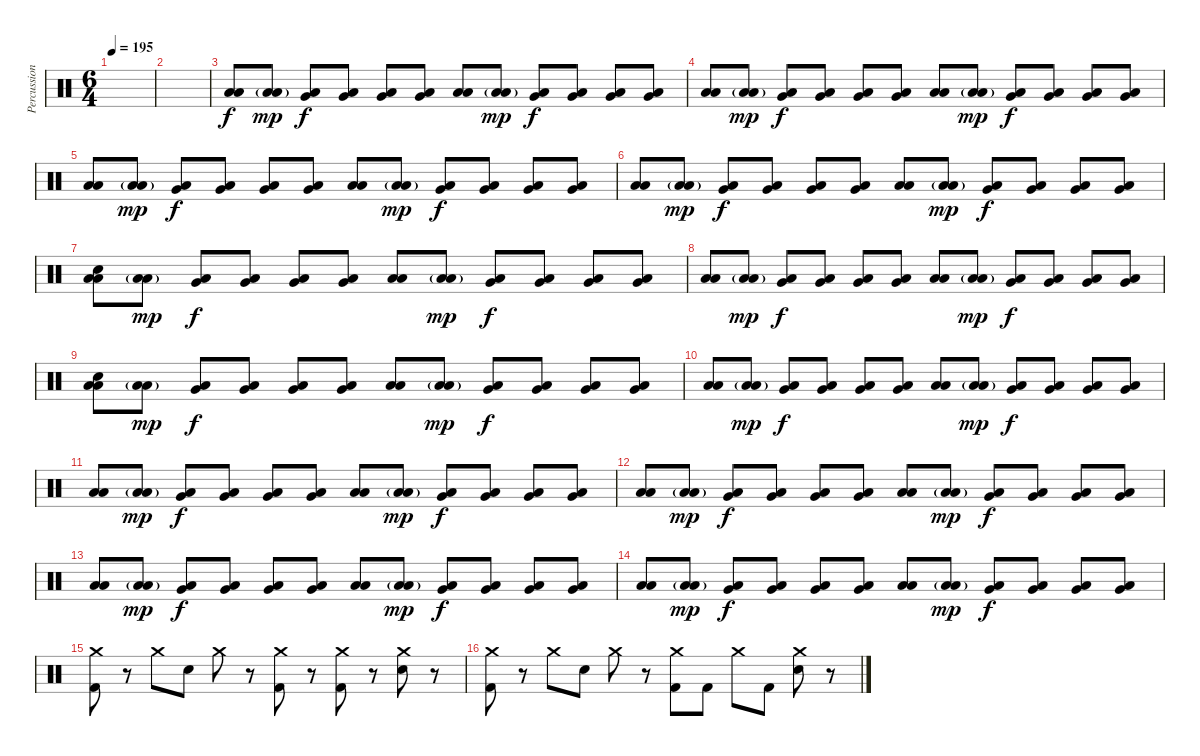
\track ("Percussion" "Percussion") {instrument percussion}
\staff {score}
\articulation defaults
\ts (6 4)
\tempo 195
\clef neutral
\ks c
|
|
("Low Floor Tom (hit)" "Low Floor Tom (hit)").8 ("Low Floor Tom (hit)"{g} "Low Floor Tom (hit)"{g}).8{dy mp} ("Very Low Tom (hit)" "Low Tom (hit)").8{dy f} ("Very Low Tom (hit)" "Low Tom (hit)").8 ("Low Floor Tom (hit)" "Very Low Tom (hit)").8 ("Low Floor Tom (hit)" "Very Low Tom (hit)").8 ("Low Floor Tom (hit)" "Low Floor Tom (hit)").8 ("Low Floor Tom (hit)"{g} "Low Floor Tom (hit)"{g}).8{dy mp} ("Very Low Tom (hit)" "Low Tom (hit)").8{dy f} ("Very Low Tom (hit)" "Low Tom (hit)").8 ("Low Floor Tom (hit)" "Very Low Tom (hit)").8 ("Low Floor Tom (hit)" "Very Low Tom (hit)").8 |
("Low Floor Tom (hit)" "Low Floor Tom (hit)").8 ("Low Floor Tom (hit)"{g} "Low Floor Tom (hit)"{g}).8{dy mp} ("Very Low Tom (hit)" "Low Tom (hit)").8{dy f} ("Very Low Tom (hit)" "Low Tom (hit)").8 ("Low Floor Tom (hit)" "Very Low Tom (hit)").8 ("Low Floor Tom (hit)" "Very Low Tom (hit)").8 ("Low Floor Tom (hit)" "Low Floor Tom (hit)").8 ("Low Floor Tom (hit)"{g} "Low Floor Tom (hit)"{g}).8{dy mp} ("Very Low Tom (hit)" "Low Tom (hit)").8{dy f} ("Very Low Tom (hit)" "Low Tom (hit)").8 ("Low Floor Tom (hit)" "Very Low Tom (hit)").8 ("Low Floor Tom (hit)" "Very Low Tom (hit)").8 |
("Low Floor Tom (hit)" "Low Floor Tom (hit)").8 ("Low Floor Tom (hit)"{g} "Low Floor Tom (hit)"{g}).8{dy mp} ("Very Low Tom (hit)" "Low Tom (hit)").8{dy f} ("Very Low Tom (hit)" "Low Tom (hit)").8 ("Low Floor Tom (hit)" "Very Low Tom (hit)").8 ("Low Floor Tom (hit)" "Very Low Tom (hit)").8 ("Low Floor Tom (hit)" "Low Floor Tom (hit)").8 ("Low Floor Tom (hit)"{g} "Low Floor Tom (hit)"{g}).8{dy mp} ("Very Low Tom (hit)" "Low Tom (hit)").8{dy f} ("Very Low Tom (hit)" "Low Tom (hit)").8 ("Low Floor Tom (hit)" "Very Low Tom (hit)").8 ("Low Floor Tom (hit)" "Very Low Tom (hit)").8 |
("Low Floor Tom (hit)" "Low Floor Tom (hit)").8 ("Low Floor Tom (hit)"{g} "Low Floor Tom (hit)"{g}).8{dy mp} ("Very Low Tom (hit)" "Low Tom (hit)").8{dy f} ("Very Low Tom (hit)" "Low Tom (hit)").8 ("Low Floor Tom (hit)" "Very Low Tom (hit)").8 ("Low Floor Tom (hit)" "Very Low Tom (hit)").8 ("Low Floor Tom (hit)" "Low Floor Tom (hit)").8 ("Low Floor Tom (hit)"{g} "Low Floor Tom (hit)"{g}).8{dy mp} ("Very Low Tom (hit)" "Low Tom (hit)").8{dy f} ("Very Low Tom (hit)" "Low Tom (hit)").8 ("Low Floor Tom (hit)" "Very Low Tom (hit)").8 ("Low Floor Tom (hit)" "Very Low Tom (hit)").8 |
("Electric Snare (hit)" "Low Floor Tom (hit)" "Low Floor Tom (hit)").8 ("Low Floor Tom (hit)"{g} "Low Floor Tom (hit)"{g}).8{dy mp} ("Very Low Tom (hit)" "Low Tom (hit)").8{dy f} ("Very Low Tom (hit)" "Low Tom (hit)").8 ("Low Floor Tom (hit)" "Very Low Tom (hit)").8 ("Low Floor Tom (hit)" "Very Low Tom (hit)").8 ("Low Floor Tom (hit)" "Low Floor Tom (hit)").8 ("Low Floor Tom (hit)"{g} "Low Floor Tom (hit)"{g}).8{dy mp} ("Very Low Tom (hit)" "Low Tom (hit)").8{dy f} ("Very Low Tom (hit)" "Low Tom (hit)").8 ("Low Floor Tom (hit)" "Very Low Tom (hit)").8 ("Low Floor Tom (hit)" "Very Low Tom (hit)").8 |
("Low Floor Tom (hit)" "Low Floor Tom (hit)").8 ("Low Floor Tom (hit)"{g} "Low Floor Tom (hit)"{g}).8{dy mp} ("Very Low Tom (hit)" "Low Tom (hit)").8{dy f} ("Very Low Tom (hit)" "Low Tom (hit)").8 ("Low Floor Tom (hit)" "Very Low Tom (hit)").8 ("Low Floor Tom (hit)" "Very Low Tom (hit)").8 ("Low Floor Tom (hit)" "Low Floor Tom (hit)").8 ("Low Floor Tom (hit)"{g} "Low Floor Tom (hit)"{g}).8{dy mp} ("Very Low Tom (hit)" "Low Tom (hit)").8{dy f} ("Very Low Tom (hit)" "Low Tom (hit)").8 ("Low Floor Tom (hit)" "Very Low Tom (hit)").8 ("Low Floor Tom (hit)" "Very Low Tom (hit)").8 |
("Electric Snare (hit)" "Low Floor Tom (hit)" "Low Floor Tom (hit)").8 ("Low Floor Tom (hit)"{g} "Low Floor Tom (hit)"{g}).8{dy mp} ("Very Low Tom (hit)" "Low Tom (hit)").8{dy f} ("Very Low Tom (hit)" "Low Tom (hit)").8 ("Low Floor Tom (hit)" "Very Low Tom (hit)").8 ("Low Floor Tom (hit)" "Very Low Tom (hit)").8 ("Low Floor Tom (hit)" "Low Floor Tom (hit)").8 ("Low Floor Tom (hit)"{g} "Low Floor Tom (hit)"{g}).8{dy mp} ("Very Low Tom (hit)" "Low Tom (hit)").8{dy f} ("Very Low Tom (hit)" "Low Tom (hit)").8 ("Low Floor Tom (hit)" "Very Low Tom (hit)").8 ("Low Floor Tom (hit)" "Very Low Tom (hit)").8 |
("Low Floor Tom (hit)" "Low Floor Tom (hit)").8 ("Low Floor Tom (hit)"{g} "Low Floor Tom (hit)"{g}).8{dy mp} ("Very Low Tom (hit)" "Low Tom (hit)").8{dy f} ("Very Low Tom (hit)" "Low Tom (hit)").8 ("Low Floor Tom (hit)" "Very Low Tom (hit)").8 ("Low Floor Tom (hit)" "Very Low Tom (hit)").8 ("Low Floor Tom (hit)" "Low Floor Tom (hit)").8 ("Low Floor Tom (hit)"{g} "Low Floor Tom (hit)"{g}).8{dy mp} ("Very Low Tom (hit)" "Low Tom (hit)").8{dy f} ("Very Low Tom (hit)" "Low Tom (hit)").8 ("Low Floor Tom (hit)" "Very Low Tom (hit)").8 ("Low Floor Tom (hit)" "Very Low Tom (hit)").8 |
("Low Floor Tom (hit)" "Low Floor Tom (hit)").8 ("Low Floor Tom (hit)"{g} "Low Floor Tom (hit)"{g}).8{dy mp} ("Very Low Tom (hit)" "Low Tom (hit)").8{dy f} ("Very Low Tom (hit)" "Low Tom (hit)").8 ("Low Floor Tom (hit)" "Very Low Tom (hit)").8 ("Low Floor Tom (hit)" "Very Low Tom (hit)").8 ("Low Floor Tom (hit)" "Low Floor Tom (hit)").8 ("Low Floor Tom (hit)"{g} "Low Floor Tom (hit)"{g}).8{dy mp} ("Very Low Tom (hit)" "Low Tom (hit)").8{dy f} ("Very Low Tom (hit)" "Low Tom (hit)").8 ("Low Floor Tom (hit)" "Very Low Tom (hit)").8 ("Low Floor Tom (hit)" "Very Low Tom (hit)").8 |
("Low Floor Tom (hit)" "Low Floor Tom (hit)").8 ("Low Floor Tom (hit)"{g} "Low Floor Tom (hit)"{g}).8{dy mp} ("Very Low Tom (hit)" "Low Tom (hit)").8{dy f} ("Very Low Tom (hit)" "Low Tom (hit)").8 ("Low Floor Tom (hit)" "Very Low Tom (hit)").8 ("Low Floor Tom (hit)" "Very Low Tom (hit)").8 ("Low Floor Tom (hit)" "Low Floor Tom (hit)").8 ("Low Floor Tom (hit)"{g} "Low Floor Tom (hit)"{g}).8{dy mp} ("Very Low Tom (hit)" "Low Tom (hit)").8{dy f} ("Very Low Tom (hit)" "Low Tom (hit)").8 ("Low Floor Tom (hit)" "Very Low Tom (hit)").8 ("Low Floor Tom (hit)" "Very Low Tom (hit)").8 |
("Low Floor Tom (hit)" "Low Floor Tom (hit)").8 ("Low Floor Tom (hit)"{g} "Low Floor Tom (hit)"{g}).8{dy mp} ("Very Low Tom (hit)" "Low Tom (hit)").8{dy f} ("Very Low Tom (hit)" "Low Tom (hit)").8 ("Low Floor Tom (hit)" "Very Low Tom (hit)").8 ("Low Floor Tom (hit)" "Very Low Tom (hit)").8 ("Low Floor Tom (hit)" "Low Floor Tom (hit)").8 ("Low Floor Tom (hit)"{g} "Low Floor Tom (hit)"{g}).8{dy mp} ("Very Low Tom (hit)" "Low Tom (hit)").8{dy f} ("Very Low Tom (hit)" "Low Tom (hit)").8 ("Low Floor Tom (hit)" "Very Low Tom (hit)").8 ("Low Floor Tom (hit)" "Very Low Tom (hit)").8 |
("Low Floor Tom (hit)" "Low Floor Tom (hit)").8 ("Low Floor Tom (hit)"{g} "Low Floor Tom (hit)"{g}).8{dy mp} ("Very Low Tom (hit)" "Low Tom (hit)").8{dy f} ("Very Low Tom (hit)" "Low Tom (hit)").8 ("Low Floor Tom (hit)" "Very Low Tom (hit)").8 ("Low Floor Tom (hit)" "Very Low Tom (hit)").8 ("Low Floor Tom (hit)" "Low Floor Tom (hit)").8 ("Low Floor Tom (hit)"{g} "Low Floor Tom (hit)"{g}).8{dy mp} ("Very Low Tom (hit)" "Low Tom (hit)").8{dy f} ("Very Low Tom (hit)" "Low Tom (hit)").8 ("Low Floor Tom (hit)" "Very Low Tom (hit)").8 ("Low Floor Tom (hit)" "Very Low Tom (hit)").8 |
("Crash medium (hit)" "Kick (hit) 2").8 r.8 "Crash medium (hit)".8 "Electric Snare (hit)".8 "Crash medium (hit)".8 r.8 ("Crash medium (hit)" "Kick (hit) 2").8 r.8 ("Crash medium (hit)" "Kick (hit) 2").8 r.8 ("Crash medium (hit)" "Electric Snare (hit)").8 r.8 |
("Crash medium (hit)" "Kick (hit) 2").8 r.8 "Crash medium (hit)".8 "Electric Snare (hit)".8 "Crash medium (hit)".8 r.8 ("Crash medium (hit)" "Kick (hit) 2").8 "Kick (hit) 2".8 "Crash medium (hit)".8 "Kick (hit) 2".8 ("Crash medium (hit)" "Electric Snare (hit)").8 r.8
